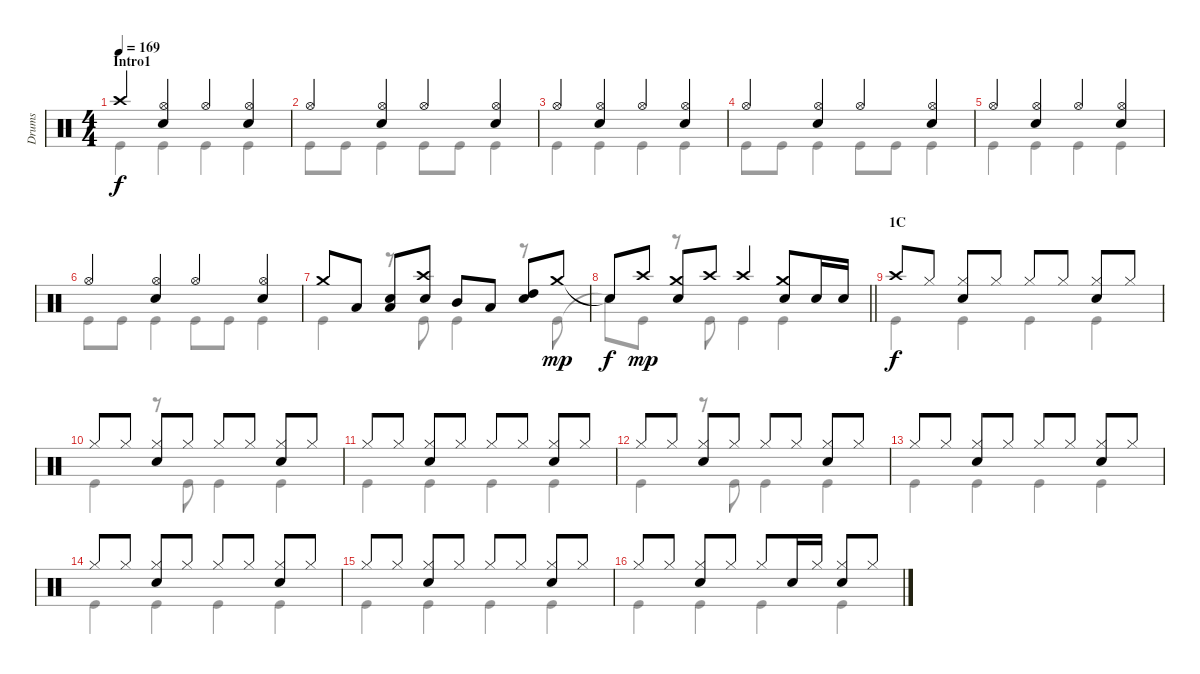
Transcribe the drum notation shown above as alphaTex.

\track ("Drums" "Drums") {instrument percussion}
\staff {score}
\articulation defaults
\voice
\ts (4 4)
\section ("" "Intro1")
\tempo 169
\clef neutral
\ks c "Crash high (hit)".4{dy f}
("Hi-Hat (open)" "Snare (hit) 2").4 "Hi-Hat (open)".4 ("Hi-Hat (open)" "Snare (hit) 2").4 |
"Hi-Hat (open)".4 ("Hi-Hat (open)" "Snare (hit) 2").4 "Hi-Hat (open)".4 ("Hi-Hat (open)" "Snare (hit) 2").4 |
"Hi-Hat (open)".4 ("Hi-Hat (open)" "Snare (hit) 2").4 "Hi-Hat (open)".4 ("Hi-Hat (open)" "Snare (hit) 2").4 |
"Hi-Hat (open)".4 ("Hi-Hat (open)" "Snare (hit) 2").4 "Hi-Hat (open)".4 ("Hi-Hat (open)" "Snare (hit) 2").4 |
"Hi-Hat (open)".4 ("Hi-Hat (open)" "Snare (hit) 2").4 "Hi-Hat (open)".4 ("Hi-Hat (open)" "Snare (hit) 2").4 |
"Hi-Hat (open)".4 ("Hi-Hat (open)" "Snare (hit) 2").4 "Hi-Hat (open)".4 ("Hi-Hat (open)" "Snare (hit) 2").4 |
"Crash medium (hit)".8 "Low Tom (hit)".8 ("Low Tom (hit)" "Snare (hit) 2").8 ("Crash high (hit)" "Snare (hit) 2").8 "Mid Tom (hit)".8 "Low Tom (hit)".8 ("High Tom (hit)" "Snare (hit) 2").8 "Crash medium (hit)".8{dy mp} |
\barLineRight lightlight "Snare (hit)"{t}.8{dy f} "Crash high (hit)".8{dy mp}
("Crash medium (hit)" "Snare (hit) 2").8 "Crash high (hit)".8 "Crash high (hit)".4 ("Crash medium (hit)" "Snare (hit) 2").8 "Snare (hit) 2".16 "Snare (hit) 2".16 |
\section ("" "1C")
"Crash high (hit)".8{dy f} "Hi-Hat (closed)".8 ("Hi-Hat (closed)" "Snare (hit) 2").8 "Hi-Hat (closed)".8 "Hi-Hat (closed)".8 "Hi-Hat (closed)".8 ("Hi-Hat (closed)" "Snare (hit) 2").8 "Hi-Hat (closed)".8 |
"Hi-Hat (closed)".8 "Hi-Hat (closed)".8 ("Hi-Hat (closed)" "Snare (hit) 2").8 "Hi-Hat (closed)".8 "Hi-Hat (closed)".8 "Hi-Hat (closed)".8 ("Hi-Hat (closed)" "Snare (hit) 2").8 "Hi-Hat (closed)".8 |
"Hi-Hat (closed)".8 "Hi-Hat (closed)".8 ("Hi-Hat (closed)" "Snare (hit) 2").8 "Hi-Hat (closed)".8 "Hi-Hat (closed)".8 "Hi-Hat (closed)".8 ("Hi-Hat (closed)" "Snare (hit) 2").8 "Hi-Hat (closed)".8 |
"Hi-Hat (closed)".8 "Hi-Hat (closed)".8 ("Hi-Hat (closed)" "Snare (hit) 2").8 "Hi-Hat (closed)".8 "Hi-Hat (closed)".8 "Hi-Hat (closed)".8 ("Hi-Hat (closed)" "Snare (hit) 2").8 "Hi-Hat (closed)".8 |
"Hi-Hat (closed)".8 "Hi-Hat (closed)".8 ("Hi-Hat (closed)" "Snare (hit) 2").8 "Hi-Hat (closed)".8 "Hi-Hat (closed)".8 "Hi-Hat (closed)".8 ("Hi-Hat (closed)" "Snare (hit) 2").8 "Hi-Hat (closed)".8 |
"Hi-Hat (closed)".8 "Hi-Hat (closed)".8 ("Hi-Hat (closed)" "Snare (hit) 2").8 "Hi-Hat (closed)".8 "Hi-Hat (closed)".8 "Hi-Hat (closed)".8 ("Hi-Hat (closed)" "Snare (hit) 2").8 "Hi-Hat (closed)".8 |
"Hi-Hat (closed)".8 "Hi-Hat (closed)".8 ("Hi-Hat (closed)" "Snare (hit) 2").8 "Hi-Hat (closed)".8 "Hi-Hat (closed)".8 "Hi-Hat (closed)".8 ("Hi-Hat (closed)" "Snare (hit) 2").8 "Hi-Hat (closed)".8 |
"Hi-Hat (closed)".8 "Hi-Hat (closed)".8 ("Hi-Hat (closed)" "Snare (hit) 2").8 "Hi-Hat (closed)".8 "Hi-Hat (closed)".8 "Snare (hit) 2".16 "Hi-Hat (closed)".16 ("Hi-Hat (closed)" "Snare (hit) 2").8 "Hi-Hat (closed)".8
\voice
\clef neutral
\ottava regular
\simile none
\ks c "Kick (hit)".4{dy f} "Kick (hit)".4 "Kick (hit)".4 "Kick (hit)".4
|
"Kick (hit)".8 "Kick (hit)".8 "Kick (hit)".4 "Kick (hit)".8 "Kick (hit)".8 "Kick (hit)".4 |
"Kick (hit)".4 "Kick (hit)".4 "Kick (hit)".4 "Kick (hit)".4 |
"Kick (hit)".8 "Kick (hit)".8 "Kick (hit)".4 "Kick (hit)".8 "Kick (hit)".8 "Kick (hit)".4 |
"Kick (hit)".4 "Kick (hit)".4 "Kick (hit)".4 "Kick (hit)".4 |
"Kick (hit)".8 "Kick (hit)".8 "Kick (hit)".4 "Kick (hit)".8 "Kick (hit)".8 "Kick (hit)".4 |
"Kick (hit)".4 r.8 "Kick (hit)".8 "Kick (hit)".4 r.8 "Kick (hit)".8 |
\barLineRight lightlight "Snare (hit)"{t}.8 "Kick (hit)".8{dy mp}
r.8 "Kick (hit)".8 "Kick (hit)".4 "Kick (hit)".4 |
"Kick (hit)".4{dy f} "Kick (hit)".4 "Kick (hit)".4 "Kick (hit)".4 |
"Kick (hit)".4 r.8 "Kick (hit)".8 "Kick (hit)".4 "Kick (hit)".4 |
"Kick (hit)".4 "Kick (hit)".4 "Kick (hit)".4 "Kick (hit)".4 |
"Kick (hit)".4 r.8 "Kick (hit)".8 "Kick (hit)".4 "Kick (hit)".4 |
"Kick (hit)".4 "Kick (hit)".4 "Kick (hit)".4 "Kick (hit)".4 |
"Kick (hit)".4 "Kick (hit)".4 "Kick (hit)".4 "Kick (hit)".4 |
"Kick (hit)".4 "Kick (hit)".4 "Kick (hit)".4 "Kick (hit)".4 |
"Kick (hit)".4 "Kick (hit)".4 "Kick (hit)".4 "Kick (hit)".4
